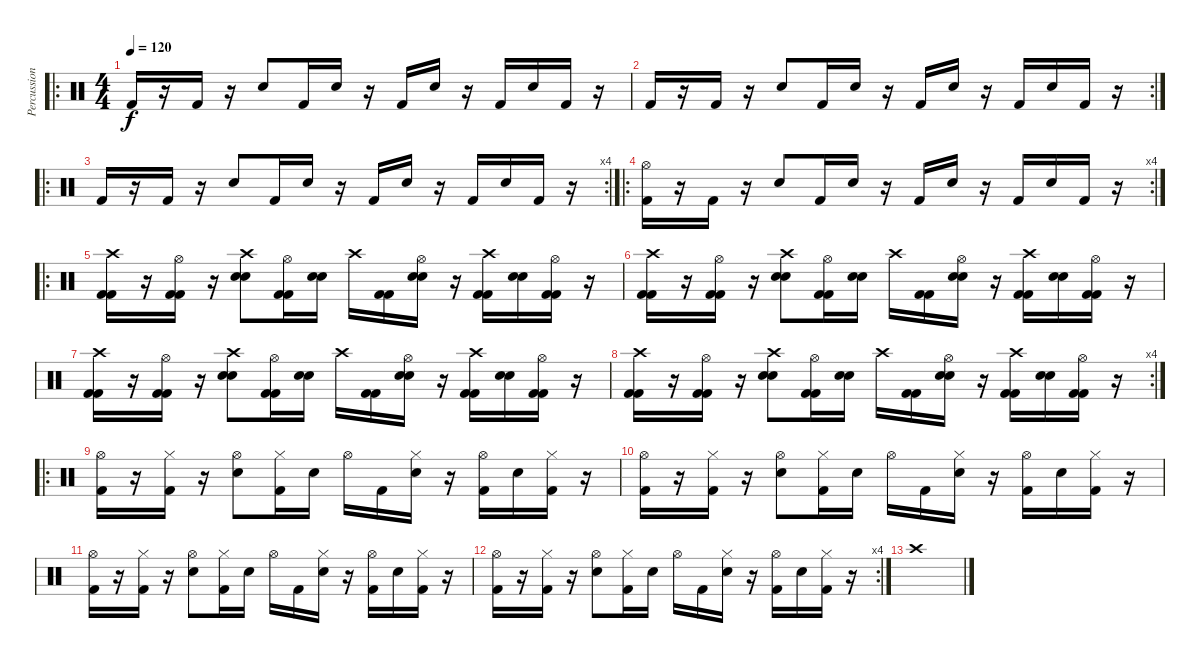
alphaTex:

\track ("Percussions" "Percussion") {instrument percussion}
\staff {score}
\articulation defaults
\ro
\ts (4 4)
\tempo 120
\clef neutral
\ks c "Kick (hit) 2".16{dy f}
r.16 "Kick (hit) 2".16 r.16 "Snare (hit) 2".8 "Kick (hit) 2".16 "Snare (hit) 2".16 r.16 "Kick (hit) 2".16 "Snare (hit) 2".16 r.16 "Kick (hit) 2".16 "Snare (hit) 2".16 "Kick (hit) 2".16 r.16 |
\rc 2 "Kick (hit) 2".16
r.16 "Kick (hit) 2".16 r.16 "Snare (hit) 2".8 "Kick (hit) 2".16 "Snare (hit) 2".16 r.16 "Kick (hit) 2".16 "Snare (hit) 2".16 r.16 "Kick (hit) 2".16 "Snare (hit) 2".16 "Kick (hit) 2".16 r.16 |
\ro
\rc 4 "Kick (hit) 2".16
r.16 "Kick (hit) 2".16 r.16 "Snare (hit) 2".8 "Kick (hit) 2".16 "Snare (hit) 2".16 r.16 "Kick (hit) 2".16 "Snare (hit) 2".16 r.16 "Kick (hit) 2".16 "Snare (hit) 2".16 "Kick (hit) 2".16 r.16 |
\ro
\rc 4
("Hi-Hat (open)" "Kick (hit) 2").16 r.16 "Kick (hit) 2".16 r.16 "Snare (hit) 2".8 "Kick (hit) 2".16 "Snare (hit) 2".16 r.16 "Kick (hit) 2".16 "Snare (hit) 2".16 r.16 "Kick (hit) 2".16 "Snare (hit) 2".16 "Kick (hit) 2".16 r.16 |
\ro
("Crash high (hit)" "Kick (hit) 2" "Kick (hit) 2").16 r.16 ("Hi-Hat (open)" "Kick (hit) 2" "Kick (hit) 2").16 r.16 ("Crash high (hit)" "Snare (hit) 2" "Snare (hit) 2").8 ("Hi-Hat (open)" "Kick (hit) 2" "Kick (hit) 2").16 ("Snare (hit) 2" "Snare (hit) 2").16 "Crash high (hit)".16 ("Kick (hit) 2" "Kick (hit) 2").16 ("Hi-Hat (open)" "Snare (hit) 2" "Snare (hit) 2").16 r.16 ("Crash high (hit)" "Kick (hit) 2" "Kick (hit) 2").16 ("Snare (hit) 2" "Snare (hit) 2").16 ("Hi-Hat (open)" "Kick (hit) 2" "Kick (hit) 2").16 r.16 |
("Crash high (hit)" "Kick (hit) 2" "Kick (hit) 2").16 r.16 ("Hi-Hat (open)" "Kick (hit) 2" "Kick (hit) 2").16 r.16 ("Crash high (hit)" "Snare (hit) 2" "Snare (hit) 2").8 ("Hi-Hat (open)" "Kick (hit) 2" "Kick (hit) 2").16 ("Snare (hit) 2" "Snare (hit) 2").16 "Crash high (hit)".16 ("Kick (hit) 2" "Kick (hit) 2").16 ("Hi-Hat (open)" "Snare (hit) 2" "Snare (hit) 2").16 r.16 ("Crash high (hit)" "Kick (hit) 2" "Kick (hit) 2").16 ("Snare (hit) 2" "Snare (hit) 2").16 ("Hi-Hat (open)" "Kick (hit) 2" "Kick (hit) 2").16 r.16 |
("Crash high (hit)" "Kick (hit) 2" "Kick (hit) 2").16 r.16 ("Hi-Hat (open)" "Kick (hit) 2" "Kick (hit) 2").16 r.16 ("Crash high (hit)" "Snare (hit) 2" "Snare (hit) 2").8 ("Hi-Hat (open)" "Kick (hit) 2" "Kick (hit) 2").16 ("Snare (hit) 2" "Snare (hit) 2").16 "Crash high (hit)".16 ("Kick (hit) 2" "Kick (hit) 2").16 ("Hi-Hat (open)" "Snare (hit) 2" "Snare (hit) 2").16 r.16 ("Crash high (hit)" "Kick (hit) 2" "Kick (hit) 2").16 ("Snare (hit) 2" "Snare (hit) 2").16 ("Hi-Hat (open)" "Kick (hit) 2" "Kick (hit) 2").16 r.16 |
\rc 4
("Crash high (hit)" "Kick (hit) 2" "Kick (hit) 2").16 r.16 ("Hi-Hat (open)" "Kick (hit) 2" "Kick (hit) 2").16 r.16 ("Crash high (hit)" "Snare (hit) 2" "Snare (hit) 2").8 ("Hi-Hat (open)" "Kick (hit) 2" "Kick (hit) 2").16 ("Snare (hit) 2" "Snare (hit) 2").16 "Crash high (hit)".16 ("Kick (hit) 2" "Kick (hit) 2").16 ("Hi-Hat (open)" "Snare (hit) 2" "Snare (hit) 2").16 r.16 ("Crash high (hit)" "Kick (hit) 2" "Kick (hit) 2").16 ("Snare (hit) 2" "Snare (hit) 2").16 ("Hi-Hat (open)" "Kick (hit) 2" "Kick (hit) 2").16 r.16 |
\ro
("Hi-Hat (open)" "Kick (hit) 2").16 r.16 ("Hi-Hat (closed)" "Kick (hit) 2").16 r.16 ("Hi-Hat (open)" "Snare (hit) 2").8 ("Hi-Hat (closed)" "Kick (hit) 2").16 "Snare (hit) 2".16 "Hi-Hat (open)".16 "Kick (hit) 2".16 ("Hi-Hat (closed)" "Snare (hit) 2").16 r.16 ("Hi-Hat (open)" "Kick (hit) 2").16 "Snare (hit) 2".16 ("Hi-Hat (closed)" "Kick (hit) 2").16 r.16 |
("Hi-Hat (open)" "Kick (hit) 2").16 r.16 ("Hi-Hat (closed)" "Kick (hit) 2").16 r.16 ("Hi-Hat (open)" "Snare (hit) 2").8 ("Hi-Hat (closed)" "Kick (hit) 2").16 "Snare (hit) 2".16 "Hi-Hat (open)".16 "Kick (hit) 2".16 ("Hi-Hat (closed)" "Snare (hit) 2").16 r.16 ("Hi-Hat (open)" "Kick (hit) 2").16 "Snare (hit) 2".16 ("Hi-Hat (closed)" "Kick (hit) 2").16 r.16 |
("Hi-Hat (open)" "Kick (hit) 2").16 r.16 ("Hi-Hat (closed)" "Kick (hit) 2").16 r.16 ("Hi-Hat (open)" "Snare (hit) 2").8 ("Hi-Hat (closed)" "Kick (hit) 2").16 "Snare (hit) 2".16 "Hi-Hat (open)".16 "Kick (hit) 2".16 ("Hi-Hat (closed)" "Snare (hit) 2").16 r.16 ("Hi-Hat (open)" "Kick (hit) 2").16 "Snare (hit) 2".16 ("Hi-Hat (closed)" "Kick (hit) 2").16 r.16 |
\rc 4
("Hi-Hat (open)" "Kick (hit) 2").16 r.16 ("Hi-Hat (closed)" "Kick (hit) 2").16 r.16 ("Hi-Hat (open)" "Snare (hit) 2").8 ("Hi-Hat (closed)" "Kick (hit) 2").16 "Snare (hit) 2".16 "Hi-Hat (open)".16 "Kick (hit) 2".16 ("Hi-Hat (closed)" "Snare (hit) 2").16 r.16 ("Hi-Hat (open)" "Kick (hit) 2").16 "Snare (hit) 2".16 ("Hi-Hat (closed)" "Kick (hit) 2").16 r.16 |
"Crash high (hit)".1
